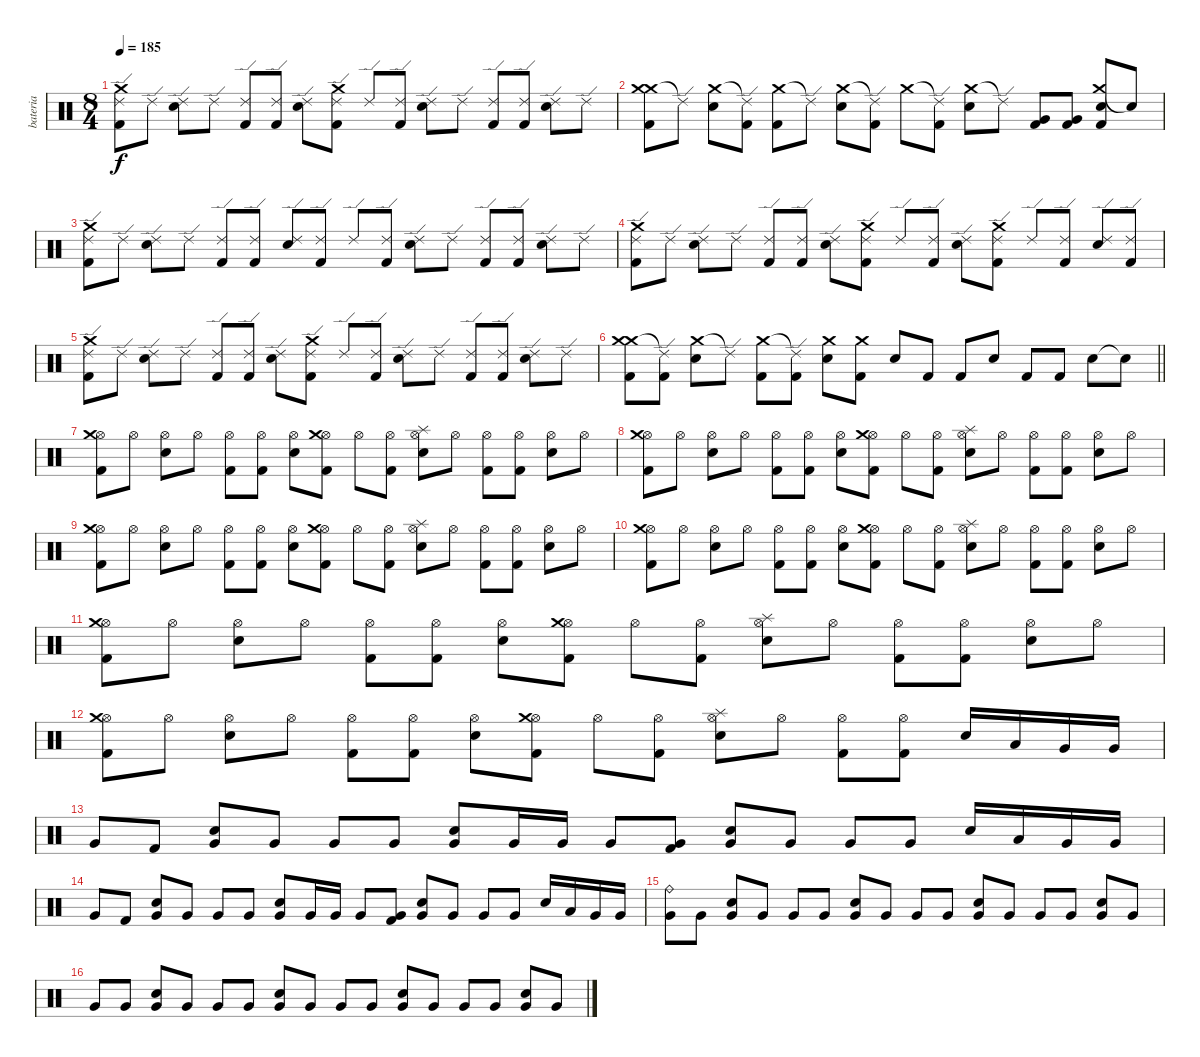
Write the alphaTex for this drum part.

\track ("bateria" "bateria") {instrument percussion}
\staff {score}
\articulation defaults
\ts (8 4)
\tempo 185
\clef neutral
\ks c
("Ride (edge) 2" "Kick (hit) 2" "Crash medium (hit)").8{dy f} "Ride (edge) 2".8 ("Ride (edge) 2" "Electric Snare (hit)").8 "Ride (edge) 2".8 ("Ride (edge) 2" "Kick (hit) 2").8 ("Ride (edge) 2" "Kick (hit) 2").8 ("Ride (edge) 2" "Electric Snare (hit)").8 ("Ride (edge) 2" "Kick (hit) 2" "Crash medium (hit)").8 "Ride (edge) 2".8 ("Ride (edge) 2" "Kick (hit) 2").8 ("Ride (edge) 2" "Electric Snare (hit)").8 "Ride (edge) 2".8 ("Ride (edge) 2" "Kick (hit) 2").8 ("Ride (edge) 2" "Kick (hit) 2").8 ("Ride (edge) 2" "Electric Snare (hit)").8 "Ride (edge) 2".8 |
("Crash medium (hit)" "Kick (hit) 2" "Crash medium (hit)").8 "Ride (edge) 2"{t}.8 ("Crash medium (hit)" "Electric Snare (hit)").8 ("Ride (edge) 2"{t} "Kick (hit) 2").8 ("Crash medium (hit)" "Kick (hit) 2").8 "Ride (edge) 2"{t}.8 ("Crash medium (hit)" "Electric Snare (hit)").8 ("Ride (edge) 2"{t} "Kick (hit) 2").8 "Crash medium (hit)".8 ("Ride (edge) 2"{t} "Kick (hit) 2").8 ("Crash medium (hit)" "Electric Snare (hit)").8 "Ride (edge) 2"{t}.8 ("Very Low Tom (hit)" "Kick (hit) 2").8 ("Very Low Tom (hit)" "Kick (hit) 2").8 ("Crash medium (hit)" "Electric Snare (hit)" "Kick (hit) 2").8 "Snare (hit)"{t}.8 |
("Ride (edge) 2" "Kick (hit) 2" "Crash medium (hit)").8 "Ride (edge) 2".8 ("Ride (edge) 2" "Electric Snare (hit)").8 "Ride (edge) 2".8 ("Ride (edge) 2" "Kick (hit) 2").8 ("Ride (edge) 2" "Kick (hit) 2").8 ("Ride (edge) 2" "Electric Snare (hit)").8 ("Ride (edge) 2" "Kick (hit) 2").8 "Ride (edge) 2".8 ("Ride (edge) 2" "Kick (hit) 2").8 ("Ride (edge) 2" "Electric Snare (hit)").8 "Ride (edge) 2".8 ("Ride (edge) 2" "Kick (hit) 2").8 ("Ride (edge) 2" "Kick (hit) 2").8 ("Ride (edge) 2" "Electric Snare (hit)").8 "Ride (edge) 2".8 |
("Ride (edge) 2" "Kick (hit) 2" "Crash medium (hit)").8 "Ride (edge) 2".8 ("Ride (edge) 2" "Electric Snare (hit)").8 "Ride (edge) 2".8 ("Ride (edge) 2" "Kick (hit) 2").8 ("Ride (edge) 2" "Kick (hit) 2").8 ("Ride (edge) 2" "Electric Snare (hit)").8 ("Ride (edge) 2" "Kick (hit) 2" "Crash medium (hit)").8 "Ride (edge) 2".8 ("Ride (edge) 2" "Kick (hit) 2").8 ("Ride (edge) 2" "Electric Snare (hit)").8 ("Ride (edge) 2" "Kick (hit) 2" "Crash medium (hit)").8 "Ride (edge) 2".8 ("Ride (edge) 2" "Kick (hit) 2").8 ("Ride (edge) 2" "Electric Snare (hit)").8 ("Ride (edge) 2" "Kick (hit) 2").8 |
("Ride (edge) 2" "Kick (hit) 2" "Crash medium (hit)").8 "Ride (edge) 2".8 ("Ride (edge) 2" "Electric Snare (hit)").8 "Ride (edge) 2".8 ("Ride (edge) 2" "Kick (hit) 2").8 ("Ride (edge) 2" "Kick (hit) 2").8 ("Ride (edge) 2" "Electric Snare (hit)").8 ("Ride (edge) 2" "Kick (hit) 2" "Crash medium (hit)").8 "Ride (edge) 2".8 ("Ride (edge) 2" "Kick (hit) 2").8 ("Ride (edge) 2" "Electric Snare (hit)").8 "Ride (edge) 2".8 ("Ride (edge) 2" "Kick (hit) 2").8 ("Ride (edge) 2" "Kick (hit) 2").8 ("Ride (edge) 2" "Electric Snare (hit)").8 "Ride (edge) 2".8 |
\barLineRight lightlight
("Crash medium (hit)" "Kick (hit) 2" "Crash medium (hit)").8 ("Ride (edge) 2"{t} "Kick (hit) 2").8 ("Crash medium (hit)" "Electric Snare (hit)").8 "Ride (edge) 2"{t}.8 ("Crash medium (hit)" "Kick (hit) 2").8 ("Ride (edge) 2"{t} "Kick (hit) 2").8 ("Crash medium (hit)" "Electric Snare (hit)").8 ("Crash medium (hit)" "Kick (hit) 2").8 "Electric Snare (hit)".8 "Kick (hit) 2".8 "Kick (hit) 2".8 "Electric Snare (hit)".8 "Kick (hit) 2".8 "Kick (hit) 2".8 "Electric Snare (hit)".8 "Electric Snare (hit)"{t}.8 |
("Hi-Hat (open)" "Kick (hit) 2" "Crash medium (hit)").8 "Hi-Hat (open)".8 ("Hi-Hat (open)" "Electric Snare (hit)").8 "Hi-Hat (open)".8 ("Hi-Hat (open)" "Kick (hit) 2").8 ("Hi-Hat (open)" "Kick (hit) 2").8 ("Hi-Hat (open)" "Electric Snare (hit)").8 ("Hi-Hat (open)" "Kick (hit) 2" "Crash medium (hit)").8 "Hi-Hat (open)".8 ("Hi-Hat (open)" "Kick (hit) 2").8 ("Hi-Hat (open)" "Electric Snare (hit)" "Splash (hit)").8 "Hi-Hat (open)".8 ("Hi-Hat (open)" "Kick (hit) 2").8 ("Hi-Hat (open)" "Kick (hit) 2").8 ("Hi-Hat (open)" "Electric Snare (hit)").8 "Hi-Hat (open)".8 |
("Hi-Hat (open)" "Kick (hit) 2" "Crash medium (hit)").8 "Hi-Hat (open)".8 ("Hi-Hat (open)" "Electric Snare (hit)").8 "Hi-Hat (open)".8 ("Hi-Hat (open)" "Kick (hit) 2").8 ("Hi-Hat (open)" "Kick (hit) 2").8 ("Hi-Hat (open)" "Electric Snare (hit)").8 ("Hi-Hat (open)" "Kick (hit) 2" "Crash medium (hit)").8 "Hi-Hat (open)".8 ("Hi-Hat (open)" "Kick (hit) 2").8 ("Hi-Hat (open)" "Electric Snare (hit)" "Splash (hit)").8 "Hi-Hat (open)".8 ("Hi-Hat (open)" "Kick (hit) 2").8 ("Hi-Hat (open)" "Kick (hit) 2").8 ("Hi-Hat (open)" "Electric Snare (hit)").8 "Hi-Hat (open)".8 |
("Hi-Hat (open)" "Kick (hit) 2" "Crash medium (hit)").8 "Hi-Hat (open)".8 ("Hi-Hat (open)" "Electric Snare (hit)").8 "Hi-Hat (open)".8 ("Hi-Hat (open)" "Kick (hit) 2").8 ("Hi-Hat (open)" "Kick (hit) 2").8 ("Hi-Hat (open)" "Electric Snare (hit)").8 ("Hi-Hat (open)" "Kick (hit) 2" "Crash medium (hit)").8 "Hi-Hat (open)".8 ("Hi-Hat (open)" "Kick (hit) 2").8 ("Hi-Hat (open)" "Electric Snare (hit)" "Splash (hit)").8 "Hi-Hat (open)".8 ("Hi-Hat (open)" "Kick (hit) 2").8 ("Hi-Hat (open)" "Kick (hit) 2").8 ("Hi-Hat (open)" "Electric Snare (hit)").8 "Hi-Hat (open)".8 |
("Hi-Hat (open)" "Kick (hit) 2" "Crash medium (hit)").8 "Hi-Hat (open)".8 ("Hi-Hat (open)" "Electric Snare (hit)").8 "Hi-Hat (open)".8 ("Hi-Hat (open)" "Kick (hit) 2").8 ("Hi-Hat (open)" "Kick (hit) 2").8 ("Hi-Hat (open)" "Electric Snare (hit)").8 ("Hi-Hat (open)" "Kick (hit) 2" "Crash medium (hit)").8 "Hi-Hat (open)".8 ("Hi-Hat (open)" "Kick (hit) 2").8 ("Hi-Hat (open)" "Electric Snare (hit)" "Splash (hit)").8 "Hi-Hat (open)".8 ("Hi-Hat (open)" "Kick (hit) 2").8 ("Hi-Hat (open)" "Kick (hit) 2").8 ("Hi-Hat (open)" "Electric Snare (hit)").8 "Hi-Hat (open)".8 |
("Hi-Hat (open)" "Kick (hit) 2" "Crash medium (hit)").8 "Hi-Hat (open)".8 ("Hi-Hat (open)" "Electric Snare (hit)").8 "Hi-Hat (open)".8 ("Hi-Hat (open)" "Kick (hit) 2").8 ("Hi-Hat (open)" "Kick (hit) 2").8 ("Hi-Hat (open)" "Electric Snare (hit)").8 ("Hi-Hat (open)" "Kick (hit) 2" "Crash medium (hit)").8 "Hi-Hat (open)".8 ("Hi-Hat (open)" "Kick (hit) 2").8 ("Hi-Hat (open)" "Electric Snare (hit)" "Splash (hit)").8 "Hi-Hat (open)".8 ("Hi-Hat (open)" "Kick (hit) 2").8 ("Hi-Hat (open)" "Kick (hit) 2").8 ("Hi-Hat (open)" "Electric Snare (hit)").8 "Hi-Hat (open)".8 |
("Hi-Hat (open)" "Kick (hit) 2" "Crash medium (hit)").8 "Hi-Hat (open)".8 ("Hi-Hat (open)" "Electric Snare (hit)").8 "Hi-Hat (open)".8 ("Hi-Hat (open)" "Kick (hit) 2").8 ("Hi-Hat (open)" "Kick (hit) 2").8 ("Hi-Hat (open)" "Electric Snare (hit)").8 ("Hi-Hat (open)" "Kick (hit) 2" "Crash medium (hit)").8 "Hi-Hat (open)".8 ("Hi-Hat (open)" "Kick (hit) 2").8 ("Hi-Hat (open)" "Electric Snare (hit)" "Splash (hit)").8 "Hi-Hat (open)".8 ("Hi-Hat (open)" "Kick (hit) 2").8 ("Hi-Hat (open)" "Kick (hit) 2").8 "Electric Snare (hit)".16 "Low Tom (hit)".16 "Very Low Tom (hit)".16 "Very Low Tom (hit)".16 |
"Very Low Tom (hit)".8 "Kick (hit) 2".8 ("Electric Snare (hit)" "Very Low Tom (hit)").8 "Very Low Tom (hit)".8 "Very Low Tom (hit)".8 "Very Low Tom (hit)".8 ("Electric Snare (hit)" "Very Low Tom (hit)").8 "Very Low Tom (hit)".16 "Very Low Tom (hit)".16 "Very Low Tom (hit)".8 ("Very Low Tom (hit)" "Kick (hit) 2").8 ("Electric Snare (hit)" "Very Low Tom (hit)").8 "Very Low Tom (hit)".8 "Very Low Tom (hit)".8 "Very Low Tom (hit)".8 "Electric Snare (hit)".16 "Low Tom (hit)".16 "Very Low Tom (hit)".16 "Very Low Tom (hit)".16 |
"Very Low Tom (hit)".8 "Kick (hit) 2".8 ("Electric Snare (hit)" "Very Low Tom (hit)").8 "Very Low Tom (hit)".8 "Very Low Tom (hit)".8 "Very Low Tom (hit)".8 ("Electric Snare (hit)" "Very Low Tom (hit)").8 "Very Low Tom (hit)".16 "Very Low Tom (hit)".16 "Very Low Tom (hit)".8 ("Very Low Tom (hit)" "Kick (hit) 2").8 ("Electric Snare (hit)" "Very Low Tom (hit)").8 "Very Low Tom (hit)".8 "Very Low Tom (hit)".8 "Very Low Tom (hit)".8 "Electric Snare (hit)".16 "Low Tom (hit)".16 "Very Low Tom (hit)".16 "Very Low Tom (hit)".16 |
("Ride (bell)" "Very Low Tom (hit)").8 "Very Low Tom (hit)".8 ("Electric Snare (hit)" "Very Low Tom (hit)").8 "Very Low Tom (hit)".8 "Very Low Tom (hit)".8 "Very Low Tom (hit)".8 ("Electric Snare (hit)" "Very Low Tom (hit)").8 "Very Low Tom (hit)".8 "Very Low Tom (hit)".8 "Very Low Tom (hit)".8 ("Electric Snare (hit)" "Very Low Tom (hit)").8 "Very Low Tom (hit)".8 "Very Low Tom (hit)".8 "Very Low Tom (hit)".8 ("Electric Snare (hit)" "Very Low Tom (hit)").8 "Very Low Tom (hit)".8 |
"Very Low Tom (hit)".8 "Very Low Tom (hit)".8 ("Electric Snare (hit)" "Very Low Tom (hit)").8 "Very Low Tom (hit)".8 "Very Low Tom (hit)".8 "Very Low Tom (hit)".8 ("Electric Snare (hit)" "Very Low Tom (hit)").8 "Very Low Tom (hit)".8 "Very Low Tom (hit)".8 "Very Low Tom (hit)".8 ("Electric Snare (hit)" "Very Low Tom (hit)").8 "Very Low Tom (hit)".8 "Very Low Tom (hit)".8 "Very Low Tom (hit)".8 ("Electric Snare (hit)" "Very Low Tom (hit)").8 "Very Low Tom (hit)".8
